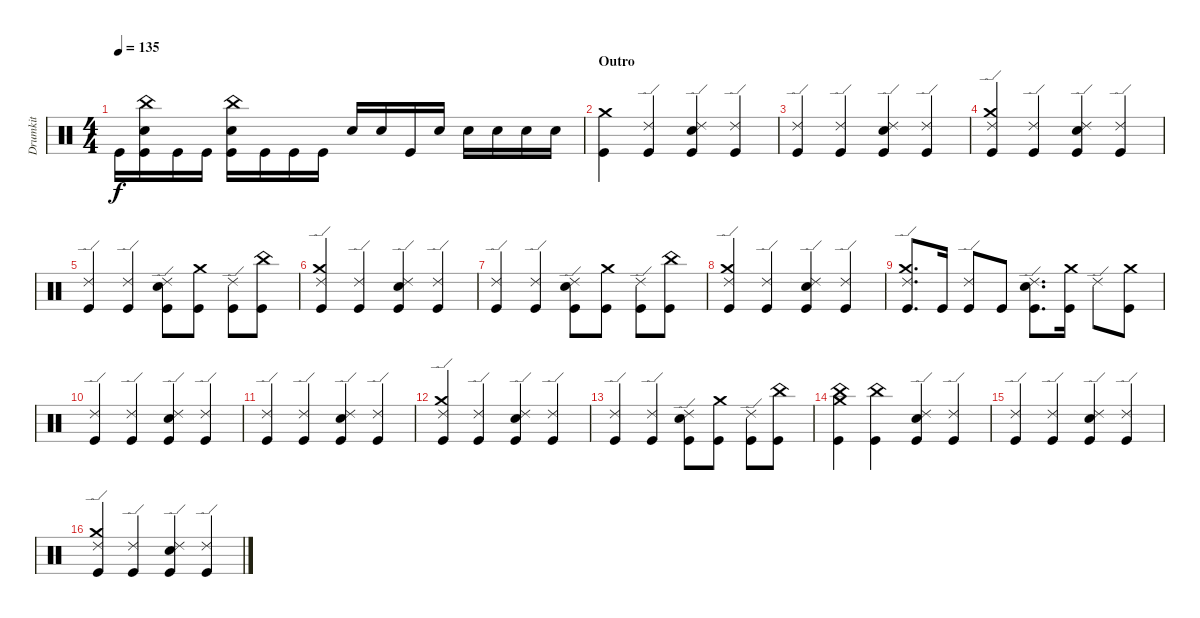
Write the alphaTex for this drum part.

\track ("Drumkit" "Drumkit") {instrument percussion}
\staff {score}
\articulation defaults
\ts (4 4)
\tempo 135
\clef neutral
\ks c "Kick (hit)".16{dy f}
("Kick (hit)" "Snare (hit) 2" "China (hit)").16 "Kick (hit)".16 "Kick (hit)".16 ("Snare (hit) 2" "Kick (hit)" "China (hit)").16 "Kick (hit)".16 "Kick (hit)".16 "Kick (hit)".16 "Snare (hit) 2".16 "Snare (hit) 2".16 "Kick (hit)".16 "Snare (hit) 2".16 "Snare (hit) 2".16 "Snare (hit) 2".16 "Snare (hit) 2".16 "Snare (hit) 2".16 |
\section ("" "Outro")
("Kick (hit)" "Crash medium (hit)").4 ("Ride (edge) 2" "Kick (hit)").4 ("Ride (edge) 2" "Kick (hit)" "Snare (hit) 2").4 ("Ride (edge) 2" "Kick (hit)").4 |
("Ride (edge) 2" "Kick (hit)").4 ("Ride (edge) 2" "Kick (hit)").4 ("Ride (edge) 2" "Kick (hit)" "Snare (hit) 2").4 ("Ride (edge) 2" "Kick (hit)").4 |
("Kick (hit)" "Crash medium (hit)" "Ride (edge) 2").4 ("Ride (edge) 2" "Kick (hit)").4 ("Ride (edge) 2" "Kick (hit)" "Snare (hit) 2").4 ("Ride (edge) 2" "Kick (hit)").4 |
("Ride (edge) 2" "Kick (hit)").4 ("Ride (edge) 2" "Kick (hit)").4 ("Ride (edge) 2" "Kick (hit)" "Snare (hit) 2").8 ("Kick (hit)" "Crash medium (hit)").8 ("Kick (hit)" "Ride (edge) 2").8 ("Kick (hit)" "China (hit)").8 |
("Kick (hit)" "Crash medium (hit)" "Ride (edge) 2").4 ("Ride (edge) 2" "Kick (hit)").4 ("Ride (edge) 2" "Kick (hit)" "Snare (hit) 2").4 ("Ride (edge) 2" "Kick (hit)").4 |
("Ride (edge) 2" "Kick (hit)").4 ("Ride (edge) 2" "Kick (hit)").4 ("Ride (edge) 2" "Kick (hit)" "Snare (hit) 2").8 ("Kick (hit)" "Crash medium (hit)").8 ("Kick (hit)" "Ride (edge) 2").8 ("Kick (hit)" "China (hit)").8 |
("Kick (hit)" "Crash medium (hit)" "Ride (edge) 2").4 ("Ride (edge) 2" "Kick (hit)").4 ("Ride (edge) 2" "Kick (hit)" "Snare (hit) 2").4 ("Ride (edge) 2" "Kick (hit)").4 |
("Kick (hit)" "Crash medium (hit)" "Ride (edge) 2").8{d} "Kick (hit)".16 ("Ride (edge) 2" "Kick (hit)").8 "Kick (hit)".8 ("Kick (hit)" "Ride (edge) 2" "Snare (hit) 2").8{d} ("Kick (hit)" "Crash medium (hit)").16 "Ride (edge) 2".8 ("Kick (hit)" "Crash medium (hit)").8 |
("Kick (hit)" "Ride (edge) 2").4 ("Ride (edge) 2" "Kick (hit)").4 ("Ride (edge) 2" "Kick (hit)" "Snare (hit) 2").4 ("Ride (edge) 2" "Kick (hit)").4 |
("Kick (hit)" "Ride (edge) 2").4 ("Ride (edge) 2" "Kick (hit)").4 ("Ride (edge) 2" "Kick (hit)" "Snare (hit) 2").4 ("Ride (edge) 2" "Kick (hit)").4 |
("Kick (hit)" "Crash medium (hit)" "Ride (edge) 2").4 ("Ride (edge) 2" "Kick (hit)").4 ("Ride (edge) 2" "Kick (hit)" "Snare (hit) 2").4 ("Ride (edge) 2" "Kick (hit)").4 |
("Ride (edge) 2" "Kick (hit)").4 ("Ride (edge) 2" "Kick (hit)").4 ("Ride (edge) 2" "Kick (hit)" "Snare (hit) 2").8 ("Kick (hit)" "Crash medium (hit)").8 ("Kick (hit)" "Ride (edge) 2").8 ("Kick (hit)" "China (hit)").8 |
("Kick (hit)" "Crash medium (hit)" "China (hit)").4 ("Kick (hit)" "China (hit)").4 ("Ride (edge) 2" "Kick (hit)" "Snare (hit) 2").4 ("Ride (edge) 2" "Kick (hit)").4 |
("Kick (hit)" "Ride (edge) 2").4 ("Ride (edge) 2" "Kick (hit)").4 ("Ride (edge) 2" "Kick (hit)" "Snare (hit) 2").4 ("Ride (edge) 2" "Kick (hit)").4 |
("Kick (hit)" "Crash medium (hit)" "Ride (edge) 2").4 ("Ride (edge) 2" "Kick (hit)").4 ("Ride (edge) 2" "Kick (hit)" "Snare (hit) 2").4 ("Ride (edge) 2" "Kick (hit)").4
